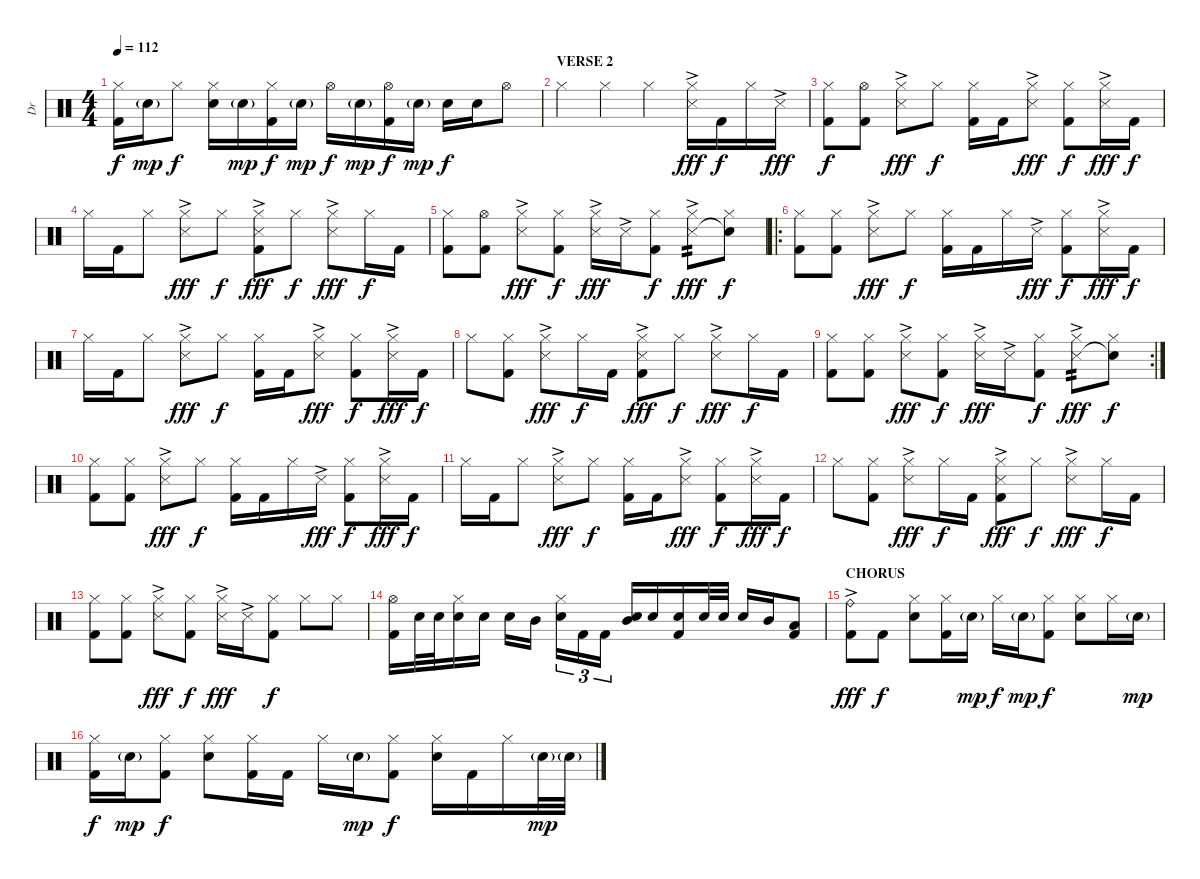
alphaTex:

\track ("Dr" "Dr") {instrument percussion}
\staff {score}
\articulation defaults
\ts (4 4)
\tempo 112
\clef neutral
\ks c
("Hi-Hat (closed)" "Kick (hit) 2").16{dy f} "Electric Snare (hit)"{g}.16{dy mp} "Hi-Hat (closed)".8{dy f} ("Hi-Hat (closed)" "Electric Snare (hit)").16 "Electric Snare (hit)"{g}.16{dy mp} ("Hi-Hat (closed)" "Kick (hit) 2").16{dy f} "Electric Snare (hit)"{g}.16{dy mp} "Hi-Hat (open)".16{dy f} "Electric Snare (hit)"{g}.16{dy mp} ("Hi-Hat (open)" "Kick (hit) 2").16{dy f} "Electric Snare (hit)"{g}.16{dy mp} "Electric Snare (hit)".16{dy f} "Electric Snare (hit)".16 "Hi-Hat (open)".8 |
\section ("" "VERSE 2")
"Hi-Hat (closed)".4 "Hi-Hat (closed)".4 "Hi-Hat (closed)".4 ("Hi-Hat (closed)" "Snare (side stick) 3"{ac}).16{dy fff} "Kick (hit) 2".16{dy f} "Hi-Hat (closed)".16 "Snare (side stick) 3"{ac}.16{dy fff} |
("Hi-Hat (closed)" "Kick (hit) 2").8{dy f} ("Hi-Hat (open)" "Kick (hit) 2").8 ("Hi-Hat (closed)" "Snare (side stick) 3"{ac}).8{dy fff} "Hi-Hat (closed)".8{dy f} ("Hi-Hat (closed)" "Kick (hit) 2").16 "Kick (hit) 2".16 ("Hi-Hat (closed)" "Snare (side stick) 3"{ac}).8{dy fff} ("Hi-Hat (closed)" "Kick (hit) 2").8{dy f} ("Hi-Hat (closed)" "Snare (side stick) 3"{ac}).16{dy fff} "Kick (hit) 2".16{dy f} |
"Hi-Hat (closed)".16 "Kick (hit) 2".16 "Hi-Hat (closed)".8 ("Hi-Hat (closed)" "Snare (side stick) 3"{ac}).8{dy fff} "Hi-Hat (closed)".8{dy f} ("Hi-Hat (closed)" "Snare (side stick) 3"{ac} "Kick (hit) 2").8{dy fff} "Hi-Hat (closed)".8{dy f} ("Hi-Hat (closed)" "Snare (side stick) 3"{ac}).8{dy fff} "Hi-Hat (closed)".16{dy f} "Kick (hit) 2".16 |
("Hi-Hat (closed)" "Kick (hit) 2").8 ("Hi-Hat (open)" "Kick (hit) 2").8 ("Hi-Hat (closed)" "Snare (side stick) 3"{ac}).8{dy fff} ("Hi-Hat (closed)" "Kick (hit) 2").8{dy f} ("Hi-Hat (closed)" "Snare (side stick) 3"{ac}).16{dy fff} "Snare (side stick) 3"{ac}.16 ("Hi-Hat (closed)" "Kick (hit) 2").8{dy f} ("Hi-Hat (closed)" "Snare (side stick) 3"{ac}).8{tp 2 dy fff} ("Hi-Hat (closed)" "Snare (hit)"{t}).8{dy f} |
\ro
("Hi-Hat (closed)" "Kick (hit) 2").8 ("Hi-Hat (closed)" "Kick (hit) 2").8 ("Hi-Hat (closed)" "Snare (side stick) 3"{ac}).8{dy fff} "Hi-Hat (closed)".8{dy f} ("Hi-Hat (closed)" "Kick (hit) 2").16 "Kick (hit) 2".16 "Hi-Hat (closed)".16 "Snare (side stick) 3"{ac}.16{dy fff} ("Hi-Hat (closed)" "Kick (hit) 2").8{dy f} ("Hi-Hat (closed)" "Snare (side stick) 3"{ac}).16{dy fff} "Kick (hit) 2".16{dy f} |
"Hi-Hat (closed)".16 "Kick (hit) 2".16 "Hi-Hat (closed)".8 ("Hi-Hat (closed)" "Snare (side stick) 3"{ac}).8{dy fff} "Hi-Hat (closed)".8{dy f} ("Hi-Hat (closed)" "Kick (hit) 2").16 "Kick (hit) 2".16 ("Hi-Hat (closed)" "Snare (side stick) 3"{ac}).8{dy fff} ("Hi-Hat (closed)" "Kick (hit) 2").8{dy f} ("Hi-Hat (closed)" "Snare (side stick) 3"{ac}).16{dy fff} "Kick (hit) 2".16{dy f} |
"Hi-Hat (closed)".8 ("Hi-Hat (closed)" "Kick (hit) 2").8 ("Hi-Hat (closed)" "Snare (side stick) 3"{ac}).8{dy fff} "Hi-Hat (closed)".16{dy f} "Kick (hit) 2".16 ("Hi-Hat (closed)" "Snare (side stick) 3"{ac} "Kick (hit) 2").8{dy fff} "Hi-Hat (closed)".8{dy f} ("Hi-Hat (closed)" "Snare (side stick) 3"{ac}).8{dy fff} "Hi-Hat (closed)".16{dy f} "Kick (hit) 2".16 |
\rc 2
("Hi-Hat (closed)" "Kick (hit) 2").8 ("Hi-Hat (closed)" "Kick (hit) 2").8 ("Hi-Hat (closed)" "Snare (side stick) 3"{ac}).8{dy fff} ("Hi-Hat (closed)" "Kick (hit) 2").8{dy f} ("Hi-Hat (closed)" "Snare (side stick) 3"{ac}).16{dy fff} "Snare (side stick) 3"{ac}.16 ("Hi-Hat (closed)" "Kick (hit) 2").8{dy f} ("Hi-Hat (closed)" "Snare (side stick) 3"{ac}).8{tp 2 dy fff} ("Hi-Hat (closed)" "Snare (hit)"{t}).8{dy f} |
("Hi-Hat (closed)" "Kick (hit) 2").8 ("Hi-Hat (closed)" "Kick (hit) 2").8 ("Hi-Hat (closed)" "Snare (side stick) 3"{ac}).8{dy fff} "Hi-Hat (closed)".8{dy f} ("Hi-Hat (closed)" "Kick (hit) 2").16 "Kick (hit) 2".16 "Hi-Hat (closed)".16 "Snare (side stick) 3"{ac}.16{dy fff} ("Hi-Hat (closed)" "Kick (hit) 2").8{dy f} ("Hi-Hat (closed)" "Snare (side stick) 3"{ac}).16{dy fff} "Kick (hit) 2".16{dy f} |
"Hi-Hat (closed)".16 "Kick (hit) 2".16 "Hi-Hat (closed)".8 ("Hi-Hat (closed)" "Snare (side stick) 3"{ac}).8{dy fff} "Hi-Hat (closed)".8{dy f} ("Hi-Hat (closed)" "Kick (hit) 2").16 "Kick (hit) 2".16 ("Hi-Hat (closed)" "Snare (side stick) 3"{ac}).8{dy fff} ("Hi-Hat (closed)" "Kick (hit) 2").8{dy f} ("Hi-Hat (closed)" "Snare (side stick) 3"{ac}).16{dy fff} "Kick (hit) 2".16{dy f} |
"Hi-Hat (closed)".8 ("Hi-Hat (closed)" "Kick (hit) 2").8 ("Hi-Hat (closed)" "Snare (side stick) 3"{ac}).8{dy fff} "Hi-Hat (closed)".16{dy f} "Kick (hit) 2".16 ("Hi-Hat (closed)" "Snare (side stick) 3"{ac} "Kick (hit) 2").8{dy fff} "Hi-Hat (closed)".8{dy f} ("Hi-Hat (closed)" "Snare (side stick) 3"{ac}).8{dy fff} "Hi-Hat (closed)".16{dy f} "Kick (hit) 2".16 |
("Hi-Hat (closed)" "Kick (hit) 2").8 ("Hi-Hat (closed)" "Kick (hit) 2").8 ("Hi-Hat (closed)" "Snare (side stick) 3"{ac}).8{dy fff} ("Hi-Hat (closed)" "Kick (hit) 2").8{dy f} ("Hi-Hat (closed)" "Snare (side stick) 3"{ac}).16{dy fff} "Snare (side stick) 3"{ac}.16 ("Hi-Hat (closed)" "Kick (hit) 2").8{dy f} "Hi-Hat (closed)".8 "Hi-Hat (closed)".8 |
("Hi-Hat (open)" "Kick (hit) 2").16 "Electric Snare (hit)".32 "Electric Snare (hit)".32 ("Hi-Hat (closed)" "Electric Snare (hit)").16 "Electric Snare (hit)".16 "Electric Snare (hit)".16 "Mid Tom (hit)".16 ("Hi-Hat (closed)" "Electric Snare (hit)").16{tu (3 2)} "Kick (hit) 2".16{tu (3 2)} "Kick (hit) 2".16{tu (3 2)} ("Electric Snare (hit)" "Mid Tom (hit)").16 "Electric Snare (hit)".16 ("Electric Snare (hit)" "Kick (hit) 2").16 "Electric Snare (hit)".32 "Electric Snare (hit)".32 "Electric Snare (hit)".16 "Mid Tom (hit)".16 ("Low Tom (hit)" "Kick (hit) 2").8 |
\section ("" "CHORUS")
("Ride (bell)"{ac} "Kick (hit) 2"{ac}).8{dy fff} "Kick (hit) 2".8{dy f} ("Hi-Hat (closed)" "Electric Snare (hit)").8 ("Hi-Hat (closed)" "Kick (hit) 2").16 "Electric Snare (hit)"{g}.16{dy mp} "Hi-Hat (closed)".16{dy f} "Electric Snare (hit)"{g}.16{dy mp} ("Hi-Hat (closed)" "Kick (hit) 2").8{dy f} ("Hi-Hat (closed)" "Electric Snare (hit)").8 "Hi-Hat (closed)".16 "Electric Snare (hit)"{g}.16{dy mp} |
("Hi-Hat (closed)" "Kick (hit) 2").16{dy f} "Electric Snare (hit)"{g}.16{dy mp} ("Hi-Hat (closed)" "Kick (hit) 2").8{dy f} ("Hi-Hat (closed)" "Electric Snare (hit)").8 ("Hi-Hat (closed)" "Kick (hit) 2").16 "Kick (hit) 2".16 "Hi-Hat (closed)".16 "Electric Snare (hit)"{g}.16{dy mp} ("Hi-Hat (closed)" "Kick (hit) 2").8{dy f} ("Hi-Hat (closed)" "Electric Snare (hit)").16 "Kick (hit) 2".16 "Hi-Hat (closed)".16 "Electric Snare (hit)"{g}.32{dy mp} "Electric Snare (hit)"{g}.32
